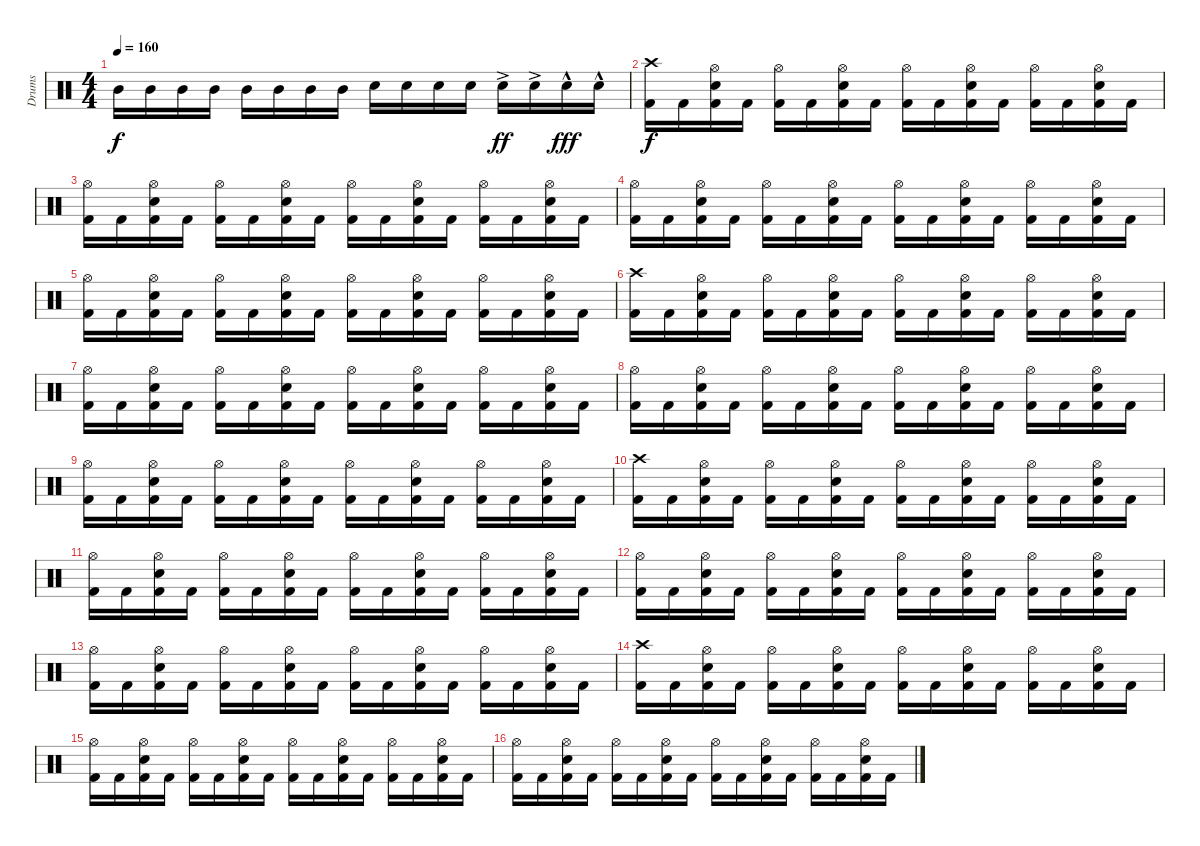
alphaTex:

\track ("Drums" "Drums") {instrument percussion}
\staff {score}
\articulation defaults
\ts (4 4)
\tempo 160
\clef neutral
\ks c "Mid Tom (hit)".16{dy f} "Mid Tom (hit)".16 "Mid Tom (hit)".16 "Mid Tom (hit)".16 "Mid Tom (hit)".16 "Mid Tom (hit)".16 "Mid Tom (hit)".16 "Mid Tom (hit)".16 "Snare (hit) 2".16 "Snare (hit) 2".16 "Snare (hit) 2".16 "Snare (hit) 2".16 "Snare (hit) 2"{ac}.16{dy ff} "Snare (hit) 2"{ac}.16 "Snare (hit) 2"{hac}.16{dy fff} "Snare (hit) 2"{hac}.16
|
("Crash high (hit)" "Kick (hit) 2").16{dy f} "Kick (hit) 2".16 ("Hi-Hat (open)" "Snare (hit) 2" "Kick (hit) 2").16 "Kick (hit) 2".16 ("Hi-Hat (open)" "Kick (hit) 2").16 "Kick (hit) 2".16 ("Hi-Hat (open)" "Snare (hit) 2" "Kick (hit) 2").16 "Kick (hit) 2".16 ("Hi-Hat (open)" "Kick (hit) 2").16 "Kick (hit) 2".16 ("Hi-Hat (open)" "Snare (hit) 2" "Kick (hit) 2").16 "Kick (hit) 2".16 ("Hi-Hat (open)" "Kick (hit) 2").16 "Kick (hit) 2".16 ("Hi-Hat (open)" "Snare (hit) 2" "Kick (hit) 2").16 "Kick (hit) 2".16 |
("Hi-Hat (open)" "Kick (hit) 2").16 "Kick (hit) 2".16 ("Hi-Hat (open)" "Snare (hit) 2" "Kick (hit) 2").16 "Kick (hit) 2".16 ("Hi-Hat (open)" "Kick (hit) 2").16 "Kick (hit) 2".16 ("Hi-Hat (open)" "Snare (hit) 2" "Kick (hit) 2").16 "Kick (hit) 2".16 ("Hi-Hat (open)" "Kick (hit) 2").16 "Kick (hit) 2".16 ("Hi-Hat (open)" "Snare (hit) 2" "Kick (hit) 2").16 "Kick (hit) 2".16 ("Hi-Hat (open)" "Kick (hit) 2").16 "Kick (hit) 2".16 ("Hi-Hat (open)" "Snare (hit) 2" "Kick (hit) 2").16 "Kick (hit) 2".16 |
("Hi-Hat (open)" "Kick (hit) 2").16 "Kick (hit) 2".16 ("Hi-Hat (open)" "Snare (hit) 2" "Kick (hit) 2").16 "Kick (hit) 2".16 ("Hi-Hat (open)" "Kick (hit) 2").16 "Kick (hit) 2".16 ("Hi-Hat (open)" "Snare (hit) 2" "Kick (hit) 2").16 "Kick (hit) 2".16 ("Hi-Hat (open)" "Kick (hit) 2").16 "Kick (hit) 2".16 ("Hi-Hat (open)" "Snare (hit) 2" "Kick (hit) 2").16 "Kick (hit) 2".16 ("Hi-Hat (open)" "Kick (hit) 2").16 "Kick (hit) 2".16 ("Hi-Hat (open)" "Snare (hit) 2" "Kick (hit) 2").16 "Kick (hit) 2".16 |
("Hi-Hat (open)" "Kick (hit) 2").16 "Kick (hit) 2".16 ("Hi-Hat (open)" "Snare (hit) 2" "Kick (hit) 2").16 "Kick (hit) 2".16 ("Hi-Hat (open)" "Kick (hit) 2").16 "Kick (hit) 2".16 ("Hi-Hat (open)" "Snare (hit) 2" "Kick (hit) 2").16 "Kick (hit) 2".16 ("Hi-Hat (open)" "Kick (hit) 2").16 "Kick (hit) 2".16 ("Hi-Hat (open)" "Snare (hit) 2" "Kick (hit) 2").16 "Kick (hit) 2".16 ("Hi-Hat (open)" "Kick (hit) 2").16 "Kick (hit) 2".16 ("Hi-Hat (open)" "Snare (hit) 2" "Kick (hit) 2").16 "Kick (hit) 2".16 |
("Crash high (hit)" "Kick (hit) 2").16 "Kick (hit) 2".16 ("Hi-Hat (open)" "Snare (hit) 2" "Kick (hit) 2").16 "Kick (hit) 2".16 ("Hi-Hat (open)" "Kick (hit) 2").16 "Kick (hit) 2".16 ("Hi-Hat (open)" "Snare (hit) 2" "Kick (hit) 2").16 "Kick (hit) 2".16 ("Hi-Hat (open)" "Kick (hit) 2").16 "Kick (hit) 2".16 ("Hi-Hat (open)" "Snare (hit) 2" "Kick (hit) 2").16 "Kick (hit) 2".16 ("Hi-Hat (open)" "Kick (hit) 2").16 "Kick (hit) 2".16 ("Hi-Hat (open)" "Snare (hit) 2" "Kick (hit) 2").16 "Kick (hit) 2".16 |
("Hi-Hat (open)" "Kick (hit) 2").16 "Kick (hit) 2".16 ("Hi-Hat (open)" "Snare (hit) 2" "Kick (hit) 2").16 "Kick (hit) 2".16 ("Hi-Hat (open)" "Kick (hit) 2").16 "Kick (hit) 2".16 ("Hi-Hat (open)" "Snare (hit) 2" "Kick (hit) 2").16 "Kick (hit) 2".16 ("Hi-Hat (open)" "Kick (hit) 2").16 "Kick (hit) 2".16 ("Hi-Hat (open)" "Snare (hit) 2" "Kick (hit) 2").16 "Kick (hit) 2".16 ("Hi-Hat (open)" "Kick (hit) 2").16 "Kick (hit) 2".16 ("Hi-Hat (open)" "Snare (hit) 2" "Kick (hit) 2").16 "Kick (hit) 2".16 |
("Hi-Hat (open)" "Kick (hit) 2").16 "Kick (hit) 2".16 ("Hi-Hat (open)" "Snare (hit) 2" "Kick (hit) 2").16 "Kick (hit) 2".16 ("Hi-Hat (open)" "Kick (hit) 2").16 "Kick (hit) 2".16 ("Hi-Hat (open)" "Snare (hit) 2" "Kick (hit) 2").16 "Kick (hit) 2".16 ("Hi-Hat (open)" "Kick (hit) 2").16 "Kick (hit) 2".16 ("Hi-Hat (open)" "Snare (hit) 2" "Kick (hit) 2").16 "Kick (hit) 2".16 ("Hi-Hat (open)" "Kick (hit) 2").16 "Kick (hit) 2".16 ("Hi-Hat (open)" "Snare (hit) 2" "Kick (hit) 2").16 "Kick (hit) 2".16 |
("Hi-Hat (open)" "Kick (hit) 2").16 "Kick (hit) 2".16 ("Hi-Hat (open)" "Snare (hit) 2" "Kick (hit) 2").16 "Kick (hit) 2".16 ("Hi-Hat (open)" "Kick (hit) 2").16 "Kick (hit) 2".16 ("Hi-Hat (open)" "Snare (hit) 2" "Kick (hit) 2").16 "Kick (hit) 2".16 ("Hi-Hat (open)" "Kick (hit) 2").16 "Kick (hit) 2".16 ("Hi-Hat (open)" "Snare (hit) 2" "Kick (hit) 2").16 "Kick (hit) 2".16 ("Hi-Hat (open)" "Kick (hit) 2").16 "Kick (hit) 2".16 ("Hi-Hat (open)" "Snare (hit) 2" "Kick (hit) 2").16 "Kick (hit) 2".16 |
("Crash high (hit)" "Kick (hit) 2").16 "Kick (hit) 2".16 ("Hi-Hat (open)" "Snare (hit) 2" "Kick (hit) 2").16 "Kick (hit) 2".16 ("Hi-Hat (open)" "Kick (hit) 2").16 "Kick (hit) 2".16 ("Hi-Hat (open)" "Snare (hit) 2" "Kick (hit) 2").16 "Kick (hit) 2".16 ("Hi-Hat (open)" "Kick (hit) 2").16 "Kick (hit) 2".16 ("Hi-Hat (open)" "Snare (hit) 2" "Kick (hit) 2").16 "Kick (hit) 2".16 ("Hi-Hat (open)" "Kick (hit) 2").16 "Kick (hit) 2".16 ("Hi-Hat (open)" "Snare (hit) 2" "Kick (hit) 2").16 "Kick (hit) 2".16 |
("Hi-Hat (open)" "Kick (hit) 2").16 "Kick (hit) 2".16 ("Hi-Hat (open)" "Snare (hit) 2" "Kick (hit) 2").16 "Kick (hit) 2".16 ("Hi-Hat (open)" "Kick (hit) 2").16 "Kick (hit) 2".16 ("Hi-Hat (open)" "Snare (hit) 2" "Kick (hit) 2").16 "Kick (hit) 2".16 ("Hi-Hat (open)" "Kick (hit) 2").16 "Kick (hit) 2".16 ("Hi-Hat (open)" "Snare (hit) 2" "Kick (hit) 2").16 "Kick (hit) 2".16 ("Hi-Hat (open)" "Kick (hit) 2").16 "Kick (hit) 2".16 ("Hi-Hat (open)" "Snare (hit) 2" "Kick (hit) 2").16 "Kick (hit) 2".16 |
("Hi-Hat (open)" "Kick (hit) 2").16 "Kick (hit) 2".16 ("Hi-Hat (open)" "Snare (hit) 2" "Kick (hit) 2").16 "Kick (hit) 2".16 ("Hi-Hat (open)" "Kick (hit) 2").16 "Kick (hit) 2".16 ("Hi-Hat (open)" "Snare (hit) 2" "Kick (hit) 2").16 "Kick (hit) 2".16 ("Hi-Hat (open)" "Kick (hit) 2").16 "Kick (hit) 2".16 ("Hi-Hat (open)" "Snare (hit) 2" "Kick (hit) 2").16 "Kick (hit) 2".16 ("Hi-Hat (open)" "Kick (hit) 2").16 "Kick (hit) 2".16 ("Hi-Hat (open)" "Snare (hit) 2" "Kick (hit) 2").16 "Kick (hit) 2".16 |
("Hi-Hat (open)" "Kick (hit) 2").16 "Kick (hit) 2".16 ("Hi-Hat (open)" "Snare (hit) 2" "Kick (hit) 2").16 "Kick (hit) 2".16 ("Hi-Hat (open)" "Kick (hit) 2").16 "Kick (hit) 2".16 ("Hi-Hat (open)" "Snare (hit) 2" "Kick (hit) 2").16 "Kick (hit) 2".16 ("Hi-Hat (open)" "Kick (hit) 2").16 "Kick (hit) 2".16 ("Hi-Hat (open)" "Snare (hit) 2" "Kick (hit) 2").16 "Kick (hit) 2".16 ("Hi-Hat (open)" "Kick (hit) 2").16 "Kick (hit) 2".16 ("Hi-Hat (open)" "Snare (hit) 2" "Kick (hit) 2").16 "Kick (hit) 2".16 |
("Crash high (hit)" "Kick (hit) 2").16 "Kick (hit) 2".16 ("Hi-Hat (open)" "Snare (hit) 2" "Kick (hit) 2").16 "Kick (hit) 2".16 ("Hi-Hat (open)" "Kick (hit) 2").16 "Kick (hit) 2".16 ("Hi-Hat (open)" "Snare (hit) 2" "Kick (hit) 2").16 "Kick (hit) 2".16 ("Hi-Hat (open)" "Kick (hit) 2").16 "Kick (hit) 2".16 ("Hi-Hat (open)" "Snare (hit) 2" "Kick (hit) 2").16 "Kick (hit) 2".16 ("Hi-Hat (open)" "Kick (hit) 2").16 "Kick (hit) 2".16 ("Hi-Hat (open)" "Snare (hit) 2" "Kick (hit) 2").16 "Kick (hit) 2".16 |
("Hi-Hat (open)" "Kick (hit) 2").16 "Kick (hit) 2".16 ("Hi-Hat (open)" "Snare (hit) 2" "Kick (hit) 2").16 "Kick (hit) 2".16 ("Hi-Hat (open)" "Kick (hit) 2").16 "Kick (hit) 2".16 ("Hi-Hat (open)" "Snare (hit) 2" "Kick (hit) 2").16 "Kick (hit) 2".16 ("Hi-Hat (open)" "Kick (hit) 2").16 "Kick (hit) 2".16 ("Hi-Hat (open)" "Snare (hit) 2" "Kick (hit) 2").16 "Kick (hit) 2".16 ("Hi-Hat (open)" "Kick (hit) 2").16 "Kick (hit) 2".16 ("Hi-Hat (open)" "Snare (hit) 2" "Kick (hit) 2").16 "Kick (hit) 2".16 |
("Hi-Hat (open)" "Kick (hit) 2").16 "Kick (hit) 2".16 ("Hi-Hat (open)" "Snare (hit) 2" "Kick (hit) 2").16 "Kick (hit) 2".16 ("Hi-Hat (open)" "Kick (hit) 2").16 "Kick (hit) 2".16 ("Hi-Hat (open)" "Snare (hit) 2" "Kick (hit) 2").16 "Kick (hit) 2".16 ("Hi-Hat (open)" "Kick (hit) 2").16 "Kick (hit) 2".16 ("Hi-Hat (open)" "Snare (hit) 2" "Kick (hit) 2").16 "Kick (hit) 2".16 ("Hi-Hat (open)" "Kick (hit) 2").16 "Kick (hit) 2".16 ("Hi-Hat (open)" "Snare (hit) 2" "Kick (hit) 2").16 "Kick (hit) 2".16
